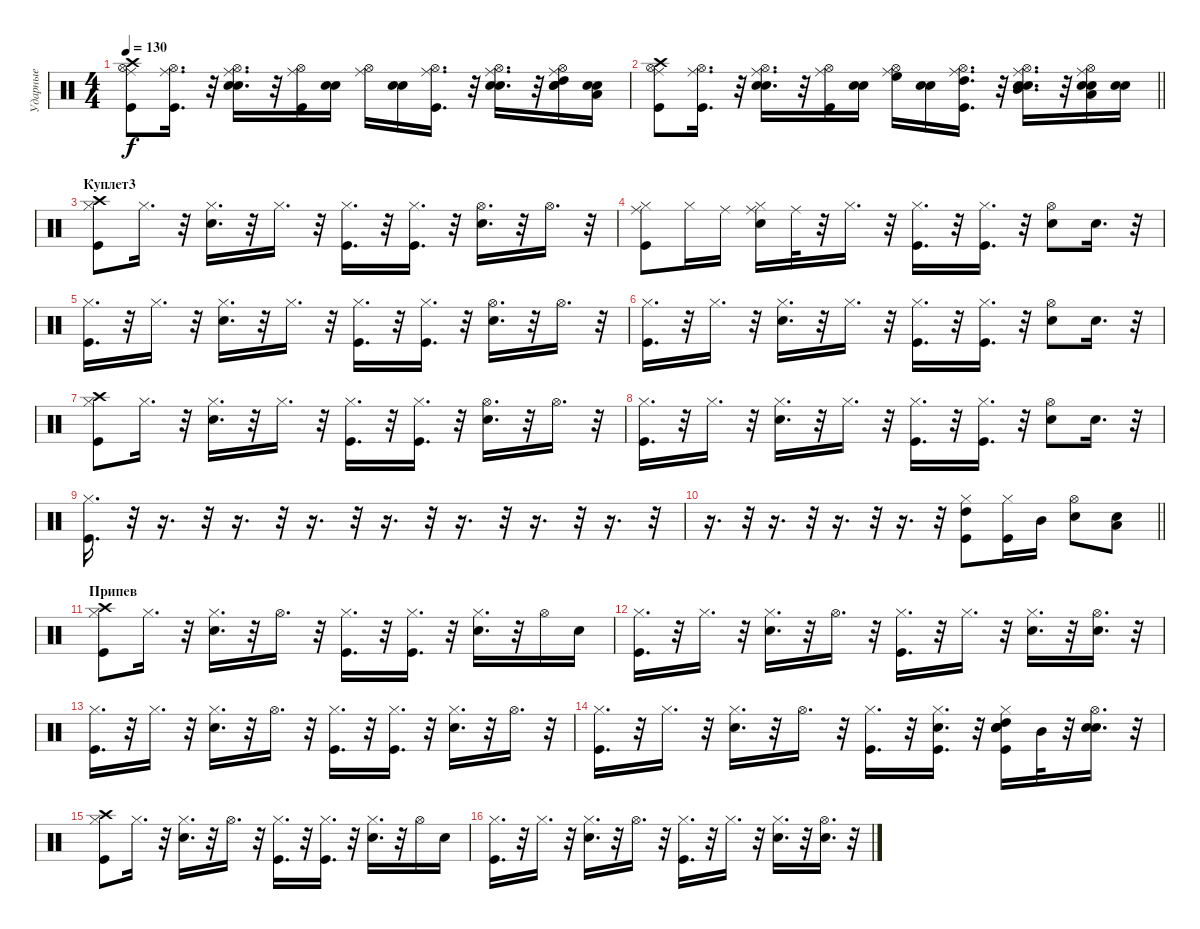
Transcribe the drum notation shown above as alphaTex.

\track ("Ударные" "Ударные") {instrument percussion}
\staff {score}
\articulation defaults
\ts (4 4)
\tempo 130
\clef neutral
\ks c
("Ride (middle)" "Kick (hit)" "Hi-Hat (open)" "Crash high (hit)").8{dy f} ("Kick (hit)" "Ride (middle)" "Hi-Hat (open)").16{d} r.32 ("Electric Snare (hit)" "Snare (hit) 2" "Ride (middle)" "Hi-Hat (open)").16{d} r.32 ("Kick (hit)" "Ride (middle)" "Hi-Hat (open)").16 ("Electric Snare (hit)" "Snare (hit) 2").16 ("Ride (middle)" "Hi-Hat (open)").16 ("Electric Snare (hit)" "Snare (hit) 2").16 ("Kick (hit)" "Ride (middle)" "Hi-Hat (open)").16{d} r.32 ("Electric Snare (hit)" "Snare (hit) 2" "Ride (middle)" "Hi-Hat (open)").16{d} r.32 ("Electric Snare (hit)" "High Tom (hit)" "Snare (hit) 2" "Ride (middle)" "Hi-Hat (open)").16 ("Electric Snare (hit)" "Low Tom (hit)" "Snare (hit) 2").16 |
\barLineRight lightlight
("Ride (middle)" "Kick (hit)" "Hi-Hat (open)" "Crash high (hit)").8 ("Kick (hit)" "Ride (middle)" "Hi-Hat (open)").16{d} r.32 ("Electric Snare (hit)" "Snare (hit) 2" "Ride (middle)" "Hi-Hat (open)").16{d} r.32 ("Kick (hit)" "Ride (middle)" "Hi-Hat (open)").16 ("Electric Snare (hit)" "Snare (hit) 2").16 ("High Floor Tom (hit)" "Ride (middle)" "Hi-Hat (open)").16 ("Electric Snare (hit)" "Snare (hit) 2").16 ("High Tom (hit)" "Kick (hit)" "Ride (middle)" "Hi-Hat (open)").16{d} r.32 ("Electric Snare (hit)" "Mid Tom (hit)" "Snare (hit) 2" "Ride (middle)" "Hi-Hat (open)").16{d} r.32 ("Electric Snare (hit)" "Snare (hit) 2" "Low Tom (hit)" "Ride (middle)" "Hi-Hat (open)").16 ("Electric Snare (hit)" "Snare (hit) 2").16 |
\section ("" "Куплет3")
("Hi-Hat (closed)" "Kick (hit)" "Crash high (hit)").8 "Hi-Hat (closed)".16{d} r.32 ("Snare (hit) 2" "Hi-Hat (closed)").16{d} r.32 "Hi-Hat (closed)".16{d} r.32 ("Kick (hit)" "Hi-Hat (closed)").16{d} r.32 ("Kick (hit)" "Hi-Hat (closed)").16{d} r.32 ("Hi-Hat (open)" "Snare (hit) 2").16{d} r.32 "Hi-Hat (open)".16{d} r.32 |
("Hi-Hat (closed)" "Ride (middle)" "Kick (hit)").8 "Hi-Hat (closed)".16 "Ride (middle)".16 ("Ride (middle)" "Hi-Hat (closed)" "Snare (hit) 2").16 "Ride (middle)".32 r.32 "Hi-Hat (closed)".16{d} r.32 ("Kick (hit)" "Hi-Hat (closed)").16{d} r.32 ("Kick (hit)" "Hi-Hat (closed)").16{d} r.32 ("Hi-Hat (open)" "Snare (hit) 2").8 "Snare (hit) 2".16{d} r.32 |
("Hi-Hat (closed)" "Kick (hit)").16{d} r.32 "Hi-Hat (closed)".16{d} r.32 ("Snare (hit) 2" "Hi-Hat (closed)").16{d} r.32 "Hi-Hat (closed)".16{d} r.32 ("Kick (hit)" "Hi-Hat (closed)").16{d} r.32 ("Kick (hit)" "Hi-Hat (closed)").16{d} r.32 ("Hi-Hat (open)" "Snare (hit) 2").16{d} r.32 "Hi-Hat (open)".16{d} r.32 |
("Hi-Hat (closed)" "Kick (hit)").16{d} r.32 "Hi-Hat (closed)".16{d} r.32 ("Hi-Hat (closed)" "Snare (hit) 2").16{d} r.32 "Hi-Hat (closed)".16{d} r.32 ("Kick (hit)" "Hi-Hat (closed)").16{d} r.32 ("Kick (hit)" "Hi-Hat (closed)").16{d} r.32 ("Hi-Hat (open)" "Snare (hit) 2").8 "Snare (hit) 2".16{d} r.32 |
("Crash high (hit)" "Hi-Hat (closed)" "Kick (hit)").8 "Hi-Hat (closed)".16{d} r.32 ("Snare (hit) 2" "Hi-Hat (closed)").16{d} r.32 "Hi-Hat (closed)".16{d} r.32 ("Kick (hit)" "Hi-Hat (closed)").16{d} r.32 ("Kick (hit)" "Hi-Hat (closed)").16{d} r.32 ("Hi-Hat (open)" "Snare (hit) 2").16{d} r.32 "Hi-Hat (open)".16{d} r.32 |
("Hi-Hat (closed)" "Kick (hit)").16{d} r.32 "Hi-Hat (closed)".16{d} r.32 ("Hi-Hat (closed)" "Snare (hit) 2").16{d} r.32 "Hi-Hat (closed)".16{d} r.32 ("Kick (hit)" "Hi-Hat (closed)").16{d} r.32 ("Kick (hit)" "Hi-Hat (closed)").16{d} r.32 ("Hi-Hat (open)" "Snare (hit) 2").8 "Snare (hit) 2".16{d} r.32 |
("Hi-Hat (closed)" "Kick (hit)").16{d} r.32 r.16{d} r.32 r.16{d} r.32 r.16{d} r.32 r.16{d} r.32 r.16{d} r.32 r.16{d} r.32 r.16{d} r.32 |
\barLineRight lightlight
r.16{d} r.32 r.16{d} r.32 r.16{d} r.32 r.16{d} r.32 ("High Tom (hit)" "Kick (hit)" "Hi-Hat (closed)").8 ("Kick (hit)" "Hi-Hat (closed)").16 "Mid Tom (hit)".16 ("Hi-Hat (open)" "Snare (hit) 2").8 ("Low Tom (hit)" "Snare (hit) 2").8 |
\section ("" "Припев")
("Hi-Hat (closed)" "Crash high (hit)" "Kick (hit)").8 "Hi-Hat (closed)".16{d} r.32 ("Hi-Hat (closed)" "Snare (hit) 2").16{d} r.32 "Hi-Hat (open)".16{d} r.32 ("Hi-Hat (closed)" "Kick (hit)").16{d} r.32 ("Hi-Hat (closed)" "Kick (hit)").16{d} r.32 ("Hi-Hat (closed)" "Snare (hit) 2").16{d} r.32 "Hi-Hat (open)".16 "Snare (hit) 2".16 |
("Kick (hit)" "Hi-Hat (closed)").16{d} r.32 "Hi-Hat (closed)".16{d} r.32 ("Hi-Hat (closed)" "Snare (hit) 2").16{d} r.32 "Hi-Hat (open)".16{d} r.32 ("Hi-Hat (closed)" "Kick (hit)").16{d} r.32 "Hi-Hat (closed)".16{d} r.32 ("Hi-Hat (closed)" "Snare (hit) 2").16{d} r.32 ("Hi-Hat (open)" "Snare (hit) 2").16{d} r.32 |
("Hi-Hat (closed)" "Kick (hit)").16{d} r.32 "Hi-Hat (closed)".16{d} r.32 ("Hi-Hat (closed)" "Snare (hit) 2").16{d} r.32 "Hi-Hat (open)".16{d} r.32 ("Hi-Hat (closed)" "Kick (hit)").16{d} r.32 ("Hi-Hat (closed)" "Kick (hit)").16{d} r.32 ("Hi-Hat (closed)" "Snare (hit) 2").16{d} r.32 "Hi-Hat (open)".16{d} r.32 |
("Hi-Hat (closed)" "Kick (hit)").16{d} r.32 "Hi-Hat (closed)".16{d} r.32 ("Hi-Hat (closed)" "Snare (hit) 2").16{d} r.32 "Hi-Hat (open)".16{d} r.32 ("Hi-Hat (closed)" "Kick (hit)").16{d} r.32 ("Hi-Hat (closed)" "Snare (hit) 2" "Kick (hit)").16{d} r.32 ("High Tom (hit)" "Hi-Hat (closed)" "Hand Clap (hit)" "Electric Snare (hit)" "Snare (hit) 2" "Kick (hit)").16 "Mid Tom (hit)".32 r.32 ("Hi-Hat (open)" "Hand Clap (hit)" "Snare (hit) 2").16{d} r.32 |
("Hi-Hat (closed)" "Crash high (hit)" "Kick (hit)").8 "Hi-Hat (closed)".16{d} r.32 ("Hi-Hat (closed)" "Snare (hit) 2").16{d} r.32 "Hi-Hat (open)".16{d} r.32 ("Hi-Hat (closed)" "Kick (hit)").16{d} r.32 ("Hi-Hat (closed)" "Kick (hit)").16{d} r.32 ("Hi-Hat (closed)" "Snare (hit) 2").16{d} r.32 "Hi-Hat (open)".16 "Snare (hit) 2".16 |
("Kick (hit)" "Hi-Hat (closed)").16{d} r.32 "Hi-Hat (closed)".16{d} r.32 ("Hi-Hat (closed)" "Snare (hit) 2").16{d} r.32 "Hi-Hat (open)".16{d} r.32 ("Hi-Hat (closed)" "Kick (hit)").16{d} r.32 "Hi-Hat (closed)".16{d} r.32 ("Hi-Hat (closed)" "Snare (hit) 2").16{d} r.32 ("Hi-Hat (open)" "Snare (hit) 2").16{d} r.32
